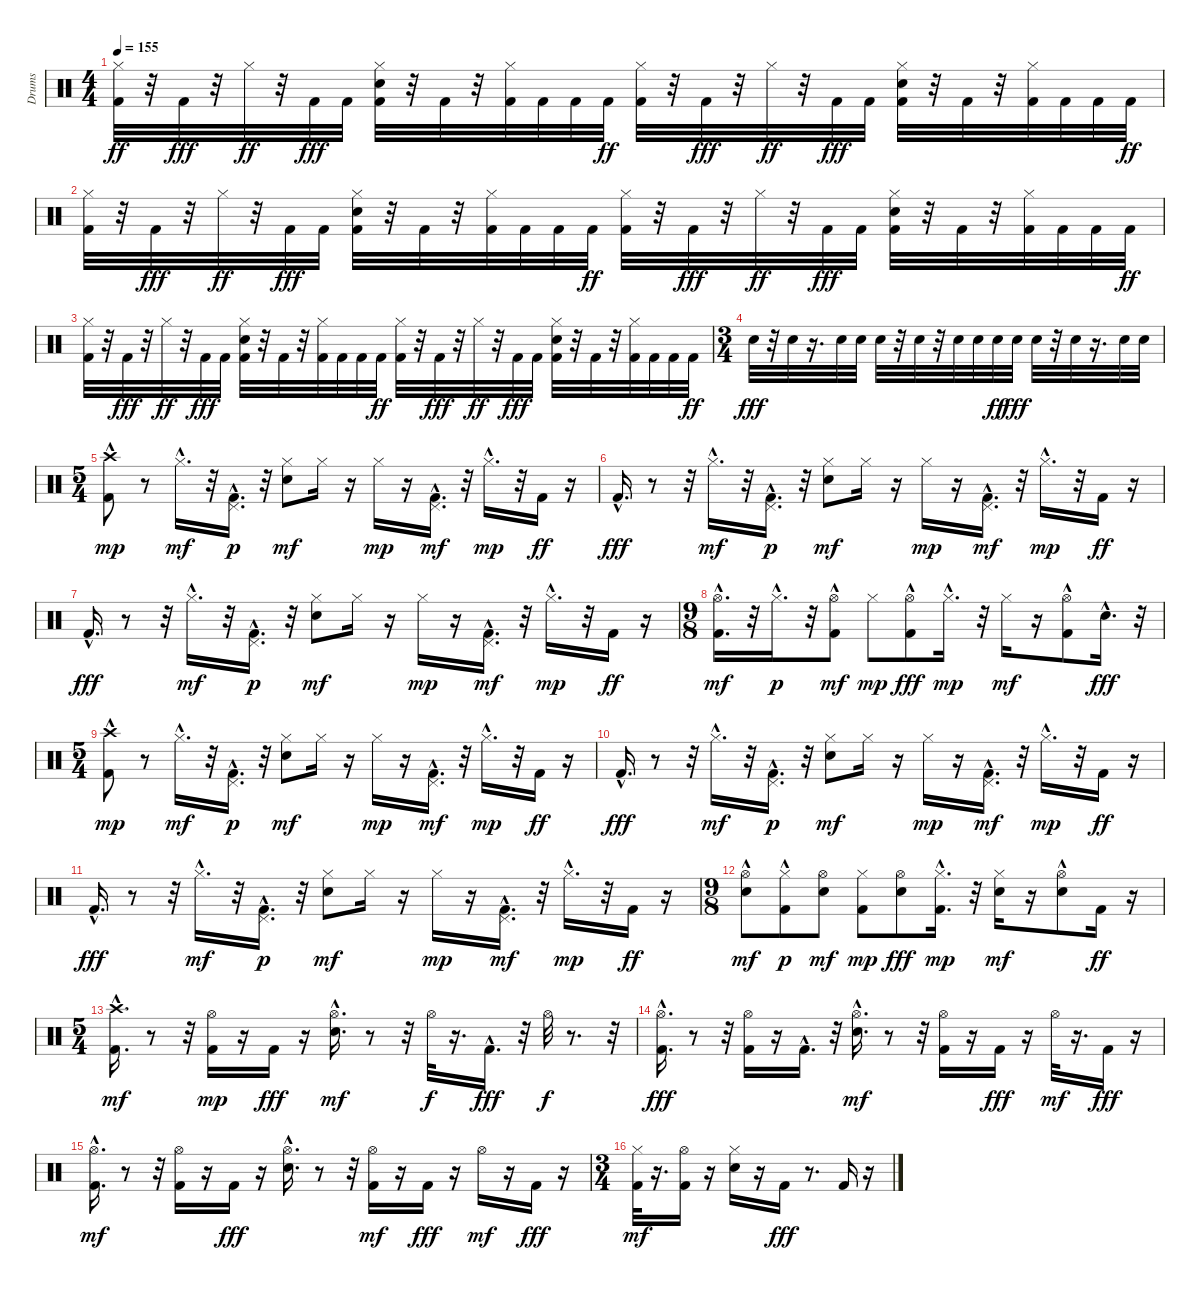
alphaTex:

\track ("Drums" "Drums") {instrument percussion}
\staff {score}
\articulation defaults
\ts (4 4)
\tempo 155
\clef neutral
\ks c
("Hi-Hat (closed)" "Kick (hit) 2").32{dy ff} r.32 "Kick (hit) 2".32{dy fff} r.32 "Hi-Hat (closed)".32{dy ff} r.32 "Kick (hit) 2".32{dy fff} "Kick (hit) 2".32 ("Hi-Hat (closed)" "Kick (hit) 2" "Electric Snare (hit)").32 r.32 "Kick (hit) 2".32 r.32 ("Hi-Hat (closed)" "Kick (hit) 2").32 "Kick (hit) 2".32 "Kick (hit) 2".32 "Kick (hit) 2".32{dy ff} ("Hi-Hat (closed)" "Kick (hit) 2").32 r.32 "Kick (hit) 2".32{dy fff} r.32 "Hi-Hat (closed)".32{dy ff} r.32 "Kick (hit) 2".32{dy fff} "Kick (hit) 2".32 ("Hi-Hat (closed)" "Electric Snare (hit)" "Kick (hit) 2").32 r.32 "Kick (hit) 2".32 r.32 ("Hi-Hat (closed)" "Kick (hit) 2").32 "Kick (hit) 2".32 "Kick (hit) 2".32 "Kick (hit) 2".32{dy ff} |
("Hi-Hat (closed)" "Kick (hit) 2").32 r.32 "Kick (hit) 2".32{dy fff} r.32 "Hi-Hat (closed)".32{dy ff} r.32 "Kick (hit) 2".32{dy fff} "Kick (hit) 2".32 ("Hi-Hat (closed)" "Kick (hit) 2" "Electric Snare (hit)").32 r.32 "Kick (hit) 2".32 r.32 ("Hi-Hat (closed)" "Kick (hit) 2").32 "Kick (hit) 2".32 "Kick (hit) 2".32 "Kick (hit) 2".32{dy ff} ("Hi-Hat (closed)" "Kick (hit) 2").32 r.32 "Kick (hit) 2".32{dy fff} r.32 "Hi-Hat (closed)".32{dy ff} r.32 "Kick (hit) 2".32{dy fff} "Kick (hit) 2".32 ("Hi-Hat (closed)" "Electric Snare (hit)" "Kick (hit) 2").32 r.32 "Kick (hit) 2".32 r.32 ("Hi-Hat (closed)" "Kick (hit) 2").32 "Kick (hit) 2".32 "Kick (hit) 2".32 "Kick (hit) 2".32{dy ff} |
("Hi-Hat (closed)" "Kick (hit) 2").32 r.32 "Kick (hit) 2".32{dy fff} r.32 "Hi-Hat (closed)".32{dy ff} r.32 "Kick (hit) 2".32{dy fff} "Kick (hit) 2".32 ("Hi-Hat (closed)" "Kick (hit) 2" "Electric Snare (hit)").32 r.32 "Kick (hit) 2".32 r.32 ("Hi-Hat (closed)" "Kick (hit) 2").32 "Kick (hit) 2".32 "Kick (hit) 2".32 "Kick (hit) 2".32{dy ff} ("Hi-Hat (closed)" "Kick (hit) 2").32 r.32 "Kick (hit) 2".32{dy fff} r.32 "Hi-Hat (closed)".32{dy ff} r.32 "Kick (hit) 2".32{dy fff} "Kick (hit) 2".32 ("Hi-Hat (closed)" "Electric Snare (hit)" "Kick (hit) 2").32 r.32 "Kick (hit) 2".32 r.32 ("Hi-Hat (closed)" "Kick (hit) 2").32 "Kick (hit) 2".32 "Kick (hit) 2".32 "Kick (hit) 2".32{dy ff} |
\ts (3 4)
"Electric Snare (hit)".32{dy fff} r.32 "Electric Snare (hit)".32 r.16{d} "Electric Snare (hit)".32 "Electric Snare (hit)".32 "Electric Snare (hit)".32 r.32 "Electric Snare (hit)".32 r.32 "Electric Snare (hit)".32 "Electric Snare (hit)".32 "Electric Snare (hit)".32{dy ff} "Electric Snare (hit)".32{dy fff} "Electric Snare (hit)".32 r.32 "Electric Snare (hit)".32 r.16{d} "Electric Snare (hit)".32 "Electric Snare (hit)".32 |
\ts (5 4)
("Kick (hit) 2"{hac} "Crash high (hit)").8{dy mp} r.8 "Hi-Hat (closed)"{hac}.16{d dy mf} r.32 ("Kick (hit) 2"{hac} "Pedal Hi-Hat (hit)"{hac}).16{d dy p} r.32 ("Electric Snare (hit)" "Hi-Hat (closed)").8{dy mf} "Hi-Hat (closed)".16 r.16 "Hi-Hat (closed)".16{dy mp} r.16 ("Kick (hit) 2"{hac} "Pedal Hi-Hat (hit)"{hac}).16{d dy mf} r.32 "Hi-Hat (closed)"{hac}.16{d dy mp} r.32 "Kick (hit) 2".16{dy ff} r.16 |
"Kick (hit) 2"{hac}.16{d dy fff} r.8 r.32 "Hi-Hat (closed)"{hac}.16{d dy mf} r.32 ("Kick (hit) 2"{hac} "Pedal Hi-Hat (hit)"{hac}).16{d dy p} r.32 ("Electric Snare (hit)" "Hi-Hat (closed)").8{dy mf} "Hi-Hat (closed)".16 r.16 "Hi-Hat (closed)".16{dy mp} r.16 ("Kick (hit) 2"{hac} "Pedal Hi-Hat (hit)"{hac}).16{d dy mf} r.32 "Hi-Hat (closed)"{hac}.16{d dy mp} r.32 "Kick (hit) 2".16{dy ff} r.16 |
"Kick (hit) 2"{hac}.16{d dy fff} r.8 r.32 "Hi-Hat (closed)"{hac}.16{d dy mf} r.32 ("Kick (hit) 2"{hac} "Pedal Hi-Hat (hit)"{hac}).16{d dy p} r.32 ("Electric Snare (hit)" "Hi-Hat (closed)").8{dy mf} "Hi-Hat (closed)".16 r.16 "Hi-Hat (closed)".16{dy mp} r.16 ("Kick (hit) 2"{hac} "Pedal Hi-Hat (hit)"{hac}).16{d dy mf} r.32 "Hi-Hat (closed)"{hac}.16{d dy mp} r.32 "Kick (hit) 2".16{dy ff} r.16 |
\ts (9 8)
("Kick (hit) 2"{hac} "Hi-Hat (open)"{hac}).16{d dy mf} r.32 "Hi-Hat (closed)"{hac}.16{d dy p} r.32 ("Kick (hit) 2"{hac} "Hi-Hat (open)").8{dy mf} "Hi-Hat (closed)".8{dy mp} ("Kick (hit) 2"{hac} "Hi-Hat (open)").8{dy fff} "Hi-Hat (closed)"{hac}.16{d dy mp} r.32 "Hi-Hat (closed)".16{dy mf} r.16 ("Kick (hit) 2"{hac} "Hi-Hat (open)").8 "Electric Snare (hit)"{hac}.16{d dy fff} r.32 |
\ts (5 4)
("Kick (hit) 2"{hac} "Crash high (hit)").8{dy mp} r.8 "Hi-Hat (closed)"{hac}.16{d dy mf} r.32 ("Kick (hit) 2"{hac} "Pedal Hi-Hat (hit)"{hac}).16{d dy p} r.32 ("Electric Snare (hit)" "Hi-Hat (closed)").8{dy mf} "Hi-Hat (closed)".16 r.16 "Hi-Hat (closed)".16{dy mp} r.16 ("Kick (hit) 2"{hac} "Pedal Hi-Hat (hit)"{hac}).16{d dy mf} r.32 "Hi-Hat (closed)"{hac}.16{d dy mp} r.32 "Kick (hit) 2".16{dy ff} r.16 |
"Kick (hit) 2"{hac}.16{d dy fff} r.8 r.32 "Hi-Hat (closed)"{hac}.16{d dy mf} r.32 ("Kick (hit) 2"{hac} "Pedal Hi-Hat (hit)"{hac}).16{d dy p} r.32 ("Electric Snare (hit)" "Hi-Hat (closed)").8{dy mf} "Hi-Hat (closed)".16 r.16 "Hi-Hat (closed)".16{dy mp} r.16 ("Kick (hit) 2"{hac} "Pedal Hi-Hat (hit)"{hac}).16{d dy mf} r.32 "Hi-Hat (closed)"{hac}.16{d dy mp} r.32 "Kick (hit) 2".16{dy ff} r.16 |
"Kick (hit) 2"{hac}.16{d dy fff} r.8 r.32 "Hi-Hat (closed)"{hac}.16{d dy mf} r.32 ("Kick (hit) 2"{hac} "Pedal Hi-Hat (hit)"{hac}).16{d dy p} r.32 ("Electric Snare (hit)" "Hi-Hat (closed)").8{dy mf} "Hi-Hat (closed)".16 r.16 "Hi-Hat (closed)".16{dy mp} r.16 ("Kick (hit) 2"{hac} "Pedal Hi-Hat (hit)"{hac}).16{d dy mf} r.32 "Hi-Hat (closed)"{hac}.16{d dy mp} r.32 "Kick (hit) 2".16{dy ff} r.16 |
\ts (9 8)
("Electric Snare (hit)" "Hi-Hat (open)"{hac}).8{dy mf} ("Kick (hit) 2" "Hi-Hat (closed)"{hac}).8{dy p} ("Electric Snare (hit)" "Hi-Hat (open)").8{dy mf} ("Kick (hit) 2" "Hi-Hat (closed)").8{dy mp} ("Electric Snare (hit)" "Hi-Hat (open)").8{dy fff} ("Kick (hit) 2"{hac} "Hi-Hat (closed)"{hac}).16{d dy mp} r.32 ("Electric Snare (hit)" "Hi-Hat (closed)").16{dy mf} r.16 ("Electric Snare (hit)"{hac} "Hi-Hat (open)").8 "Kick (hit) 2".16{dy ff} r.16 |
\ts (5 4)
("Kick (hit) 2"{hac} "Crash high (hit)").16{d dy mf} r.8 r.32 ("Kick (hit) 2" "Hi-Hat (open)").16{dy mp} r.16 "Kick (hit) 2".16{dy fff} r.16 ("Electric Snare (hit)"{hac} "Hi-Hat (open)").16{d dy mf} r.8 r.32 "Hi-Hat (open)".32{dy f} r.16{d} "Kick (hit) 2"{hac}.16{d dy fff} r.32 "Hi-Hat (open)".32{dy f} r.8{d} r.32 |
("Kick (hit) 2"{hac} "Hi-Hat (open)").16{d dy fff} r.8 r.32 ("Kick (hit) 2" "Hi-Hat (open)").16 r.16 "Kick (hit) 2"{hac}.16{d} r.32 ("Electric Snare (hit)"{hac} "Hi-Hat (open)").16{d dy mf} r.8 r.32 ("Kick (hit) 2" "Hi-Hat (open)").16 r.16 "Kick (hit) 2".16{dy fff} r.16 "Hi-Hat (open)".32{dy mf} r.16{d} "Kick (hit) 2".16{dy fff} r.16 |
("Kick (hit) 2"{hac} "Hi-Hat (open)").16{d dy mf} r.8 r.32 ("Kick (hit) 2" "Hi-Hat (open)").16 r.16 "Kick (hit) 2".16{dy fff} r.16 ("Electric Snare (hit)"{hac} "Hi-Hat (open)").16{d} r.8 r.32 ("Kick (hit) 2" "Hi-Hat (open)").16{dy mf} r.16 "Kick (hit) 2".16{dy fff} r.16 "Hi-Hat (open)".16{dy mf} r.16 "Kick (hit) 2".16{dy fff} r.16 |
\ts (3 4)
("Kick (hit) 2" "Hi-Hat (closed)").32{dy mf} r.16{d} ("Kick (hit) 2" "Hi-Hat (open)").16 r.16 ("Electric Snare (hit)" "Hi-Hat (closed)").16 r.16 "Kick (hit) 2".16{dy fff} r.8{d} "Kick (hit) 2".16 r.16
